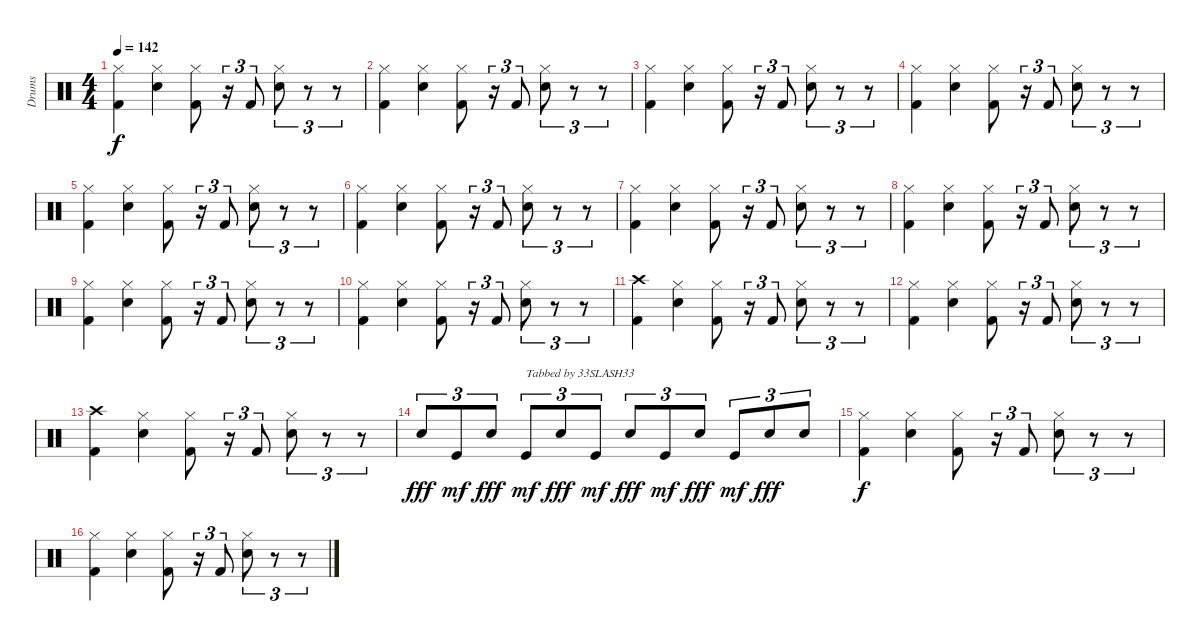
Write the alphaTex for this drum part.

\track ("Drums" "Drums") {instrument percussion}
\staff {score}
\articulation defaults
\ts (4 4)
\tempo 142
\clef neutral
\ks c
("Hi-Hat (closed)" "Kick (hit) 2").4{dy f} ("Hi-Hat (closed)" "Snare (hit) 2").4 ("Hi-Hat (closed)" "Kick (hit) 2").8 r.16{tu (3 2)} "Kick (hit) 2".8{tu (3 2)} ("Hi-Hat (closed)" "Snare (hit) 2").8{tu (3 2)} r.8{tu (3 2)} r.8{tu (3 2)} |
("Hi-Hat (closed)" "Kick (hit) 2").4 ("Hi-Hat (closed)" "Snare (hit) 2").4 ("Hi-Hat (closed)" "Kick (hit) 2").8 r.16{tu (3 2)} "Kick (hit) 2".8{tu (3 2)} ("Hi-Hat (closed)" "Snare (hit) 2").8{tu (3 2)} r.8{tu (3 2)} r.8{tu (3 2)} |
("Hi-Hat (closed)" "Kick (hit) 2").4 ("Hi-Hat (closed)" "Snare (hit) 2").4 ("Hi-Hat (closed)" "Kick (hit) 2").8 r.16{tu (3 2)} "Kick (hit) 2".8{tu (3 2)} ("Hi-Hat (closed)" "Snare (hit) 2").8{tu (3 2)} r.8{tu (3 2)} r.8{tu (3 2)} |
("Hi-Hat (closed)" "Kick (hit) 2").4 ("Hi-Hat (closed)" "Snare (hit) 2").4 ("Hi-Hat (closed)" "Kick (hit) 2").8 r.16{tu (3 2)} "Kick (hit) 2".8{tu (3 2)} ("Hi-Hat (closed)" "Snare (hit) 2").8{tu (3 2)} r.8{tu (3 2)} r.8{tu (3 2)} |
("Hi-Hat (closed)" "Kick (hit) 2").4 ("Hi-Hat (closed)" "Snare (hit) 2").4 ("Hi-Hat (closed)" "Kick (hit) 2").8 r.16{tu (3 2)} "Kick (hit) 2".8{tu (3 2)} ("Hi-Hat (closed)" "Snare (hit) 2").8{tu (3 2)} r.8{tu (3 2)} r.8{tu (3 2)} |
("Hi-Hat (closed)" "Kick (hit) 2").4 ("Hi-Hat (closed)" "Snare (hit) 2").4 ("Hi-Hat (closed)" "Kick (hit) 2").8 r.16{tu (3 2)} "Kick (hit) 2".8{tu (3 2)} ("Hi-Hat (closed)" "Snare (hit) 2").8{tu (3 2)} r.8{tu (3 2)} r.8{tu (3 2)} |
("Hi-Hat (closed)" "Kick (hit) 2").4 ("Hi-Hat (closed)" "Snare (hit) 2").4 ("Hi-Hat (closed)" "Kick (hit) 2").8 r.16{tu (3 2)} "Kick (hit) 2".8{tu (3 2)} ("Hi-Hat (closed)" "Snare (hit) 2").8{tu (3 2)} r.8{tu (3 2)} r.8{tu (3 2)} |
("Hi-Hat (closed)" "Kick (hit) 2").4 ("Hi-Hat (closed)" "Snare (hit) 2").4 ("Hi-Hat (closed)" "Kick (hit) 2").8 r.16{tu (3 2)} "Kick (hit) 2".8{tu (3 2)} ("Hi-Hat (closed)" "Snare (hit) 2").8{tu (3 2)} r.8{tu (3 2)} r.8{tu (3 2)} |
("Hi-Hat (closed)" "Kick (hit) 2").4 ("Hi-Hat (closed)" "Snare (hit) 2").4 ("Hi-Hat (closed)" "Kick (hit) 2").8 r.16{tu (3 2)} "Kick (hit) 2".8{tu (3 2)} ("Hi-Hat (closed)" "Snare (hit) 2").8{tu (3 2)} r.8{tu (3 2)} r.8{tu (3 2)} |
("Hi-Hat (closed)" "Kick (hit) 2").4 ("Hi-Hat (closed)" "Snare (hit) 2").4 ("Hi-Hat (closed)" "Kick (hit) 2").8 r.16{tu (3 2)} "Kick (hit) 2".8{tu (3 2)} ("Hi-Hat (closed)" "Snare (hit) 2").8{tu (3 2)} r.8{tu (3 2)} r.8{tu (3 2)} |
("Crash high (hit)" "Kick (hit) 2").4 ("Hi-Hat (closed)" "Snare (hit) 2").4 ("Hi-Hat (closed)" "Kick (hit) 2").8 r.16{tu (3 2)} "Kick (hit) 2".8{tu (3 2)} ("Hi-Hat (closed)" "Snare (hit) 2").8{tu (3 2)} r.8{tu (3 2)} r.8{tu (3 2)} |
("Hi-Hat (closed)" "Kick (hit) 2").4 ("Hi-Hat (closed)" "Snare (hit) 2").4 ("Hi-Hat (closed)" "Kick (hit) 2").8 r.16{tu (3 2)} "Kick (hit) 2".8{tu (3 2)} ("Hi-Hat (closed)" "Snare (hit) 2").8{tu (3 2)} r.8{tu (3 2)} r.8{tu (3 2)} |
("Crash high (hit)" "Kick (hit) 2").4 ("Hi-Hat (closed)" "Snare (hit) 2").4 ("Hi-Hat (closed)" "Kick (hit) 2").8 r.16{tu (3 2)} "Kick (hit) 2".8{tu (3 2)} ("Hi-Hat (closed)" "Snare (hit) 2").8{tu (3 2)} r.8{tu (3 2)} r.8{tu (3 2)} |
"Snare (hit) 2".8{tu (3 2) dy fff} "Kick (hit)".8{tu (3 2) dy mf} "Snare (hit) 2".8{tu (3 2) dy fff} "Kick (hit)".8{tu (3 2) txt "Tabbed by 33SLASH33" dy mf} "Snare (hit) 2".8{tu (3 2) dy fff} "Kick (hit)".8{tu (3 2) dy mf} "Snare (hit) 2".8{tu (3 2) dy fff} "Kick (hit)".8{tu (3 2) dy mf} "Snare (hit) 2".8{tu (3 2) dy fff} "Kick (hit)".8{tu (3 2) dy mf} "Snare (hit) 2".8{tu (3 2) dy fff} "Snare (hit) 2".8{tu (3 2)} |
("Hi-Hat (closed)" "Kick (hit) 2").4{dy f} ("Hi-Hat (closed)" "Snare (hit) 2").4 ("Hi-Hat (closed)" "Kick (hit) 2").8 r.16{tu (3 2)} "Kick (hit) 2".8{tu (3 2)} ("Hi-Hat (closed)" "Snare (hit) 2").8{tu (3 2)} r.8{tu (3 2)} r.8{tu (3 2)} |
("Hi-Hat (closed)" "Kick (hit) 2").4 ("Hi-Hat (closed)" "Snare (hit) 2").4 ("Hi-Hat (closed)" "Kick (hit) 2").8 r.16{tu (3 2)} "Kick (hit) 2".8{tu (3 2)} ("Hi-Hat (closed)" "Snare (hit) 2").8{tu (3 2)} r.8{tu (3 2)} r.8{tu (3 2)}
